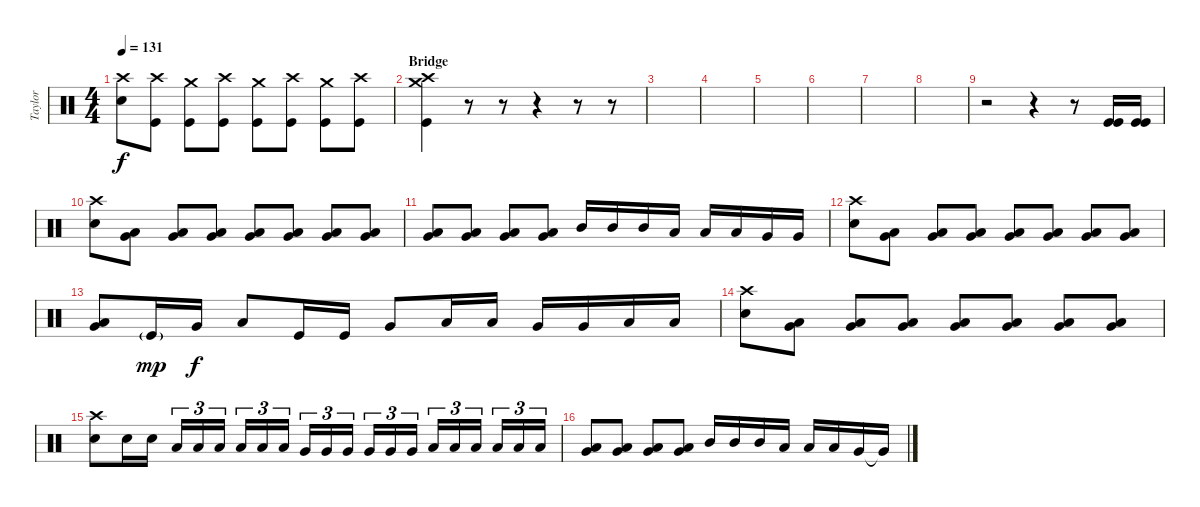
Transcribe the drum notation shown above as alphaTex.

\track ("Taylor" "Taylor") {instrument percussion}
\staff {score}
\articulation defaults
\ts (4 4)
\tempo 131
\clef neutral
\ks c
("Crash high (hit)" "Snare (hit) 2").8{dy f} ("Kick (hit)" "Crash high (hit)").8 ("Kick (hit)" "Crash medium (hit)").8 ("Kick (hit)" "Crash high (hit)").8 ("Kick (hit)" "Crash medium (hit)").8 ("Kick (hit)" "Crash high (hit)").8 ("Kick (hit)" "Crash medium (hit)").8 ("Kick (hit)" "Crash high (hit)").8 |
\section ("" "Bridge")
("Crash medium (hit)" "Crash high (hit)" "Kick (hit)").4 r.8 r.8 r.4 r.8 r.8 |
|
|
|
|
|
|
r.2 r.4 r.8 ("Kick (hit)" "Kick (hit)").16 ("Kick (hit)" "Kick (hit)").16 |
("Crash high (hit)" "Snare (hit) 2").8 ("Very Low Tom (hit)" "Low Floor Tom (hit)").8 ("Very Low Tom (hit)" "Low Floor Tom (hit)").8 ("Very Low Tom (hit)" "Low Floor Tom (hit)").8 ("Very Low Tom (hit)" "Low Floor Tom (hit)").8 ("Very Low Tom (hit)" "Low Floor Tom (hit)").8 ("Very Low Tom (hit)" "Low Floor Tom (hit)").8 ("Very Low Tom (hit)" "Low Floor Tom (hit)").8 |
("Very Low Tom (hit)" "Low Floor Tom (hit)").8 ("Very Low Tom (hit)" "Low Floor Tom (hit)").8 ("Very Low Tom (hit)" "Low Floor Tom (hit)").8 ("Very Low Tom (hit)" "Low Floor Tom (hit)").8 "Mid Tom (hit)".16 "Mid Tom (hit)".16 "Mid Tom (hit)".16 "Low Tom (hit)".16 "Low Tom (hit)".16 "Low Tom (hit)".16 "Very Low Tom (hit)".16 "Very Low Tom (hit)".16 |
("Crash high (hit)" "Snare (hit) 2").8 ("Very Low Tom (hit)" "Low Floor Tom (hit)").8 ("Very Low Tom (hit)" "Low Floor Tom (hit)").8 ("Very Low Tom (hit)" "Low Floor Tom (hit)").8 ("Very Low Tom (hit)" "Low Floor Tom (hit)").8 ("Very Low Tom (hit)" "Low Floor Tom (hit)").8 ("Very Low Tom (hit)" "Low Floor Tom (hit)").8 ("Very Low Tom (hit)" "Low Floor Tom (hit)").8 |
("Very Low Tom (hit)" "Low Floor Tom (hit)").8 "Kick (hit)"{g}.16{dy mp} "Very Low Tom (hit)".16{dy f} "Low Floor Tom (hit)".8 "Kick (hit)".16 "Kick (hit)".16 "Very Low Tom (hit)".8 "Low Tom (hit)".16 "Low Tom (hit)".16 "Very Low Tom (hit)".16 "Very Low Tom (hit)".16 "Low Floor Tom (hit)".16 "Low Floor Tom (hit)".16 |
("Crash high (hit)" "Snare (hit) 2").8 ("Very Low Tom (hit)" "Low Floor Tom (hit)").8 ("Very Low Tom (hit)" "Low Floor Tom (hit)").8 ("Very Low Tom (hit)" "Low Floor Tom (hit)").8 ("Very Low Tom (hit)" "Low Floor Tom (hit)").8 ("Very Low Tom (hit)" "Low Floor Tom (hit)").8 ("Very Low Tom (hit)" "Low Floor Tom (hit)").8 ("Very Low Tom (hit)" "Low Floor Tom (hit)").8 |
("Crash high (hit)" "Snare (hit) 2").8 "Snare (hit) 2".16 "Snare (hit) 2".16 "Low Tom (hit)".16{tu (3 2)} "Low Tom (hit)".16{tu (3 2)} "Low Tom (hit)".16{tu (3 2)} "Low Tom (hit)".16{tu (3 2)} "Low Tom (hit)".16{tu (3 2)} "Low Tom (hit)".16{tu (3 2)} "Very Low Tom (hit)".16{tu (3 2)} "Very Low Tom (hit)".16{tu (3 2)} "Very Low Tom (hit)".16{tu (3 2)} "Very Low Tom (hit)".16{tu (3 2)} "Very Low Tom (hit)".16{tu (3 2)} "Very Low Tom (hit)".16{tu (3 2)} "Low Floor Tom (hit)".16{tu (3 2)} "Low Floor Tom (hit)".16{tu (3 2)} "Low Floor Tom (hit)".16{tu (3 2)} "Low Floor Tom (hit)".16{tu (3 2)} "Low Floor Tom (hit)".16{tu (3 2)} "Low Floor Tom (hit)".16{tu (3 2)} |
("Very Low Tom (hit)" "Low Floor Tom (hit)").8 ("Very Low Tom (hit)" "Low Floor Tom (hit)").8 ("Very Low Tom (hit)" "Low Floor Tom (hit)").8 ("Very Low Tom (hit)" "Low Floor Tom (hit)").8 "Mid Tom (hit)".16 "Mid Tom (hit)".16 "Mid Tom (hit)".16 "Low Tom (hit)".16 "Low Tom (hit)".16 "Low Tom (hit)".16 "Very Low Tom (hit)".16 "Very Low Tom (hit)"{t}.16
